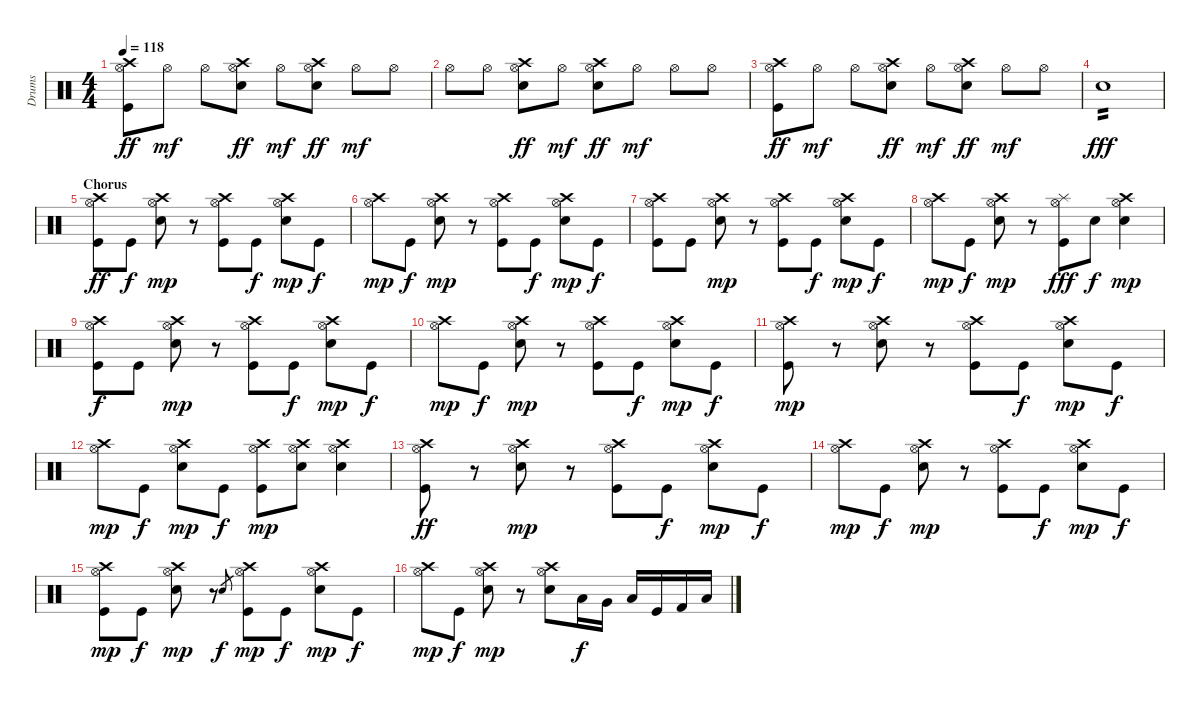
\track ("Drums" "Drums") {instrument percussion}
\staff {score}
\articulation defaults
\ts (4 4)
\tempo 118
\clef neutral
\ks c
("Crash high (hit)" "Hi-Hat (open)" "Kick (hit)").8{dy ff volume 16} "Hi-Hat (open)".8{dy mf} "Hi-Hat (open)".8 ("Crash high (hit)" "Hi-Hat (open)" "Snare (hit) 2").8{dy ff} "Hi-Hat (open)".8{dy mf} ("Crash high (hit)" "Hi-Hat (open)" "Snare (hit) 2").8{dy ff} "Hi-Hat (open)".8{dy mf} "Hi-Hat (open)".8 |
"Hi-Hat (open)".8 "Hi-Hat (open)".8 ("Crash high (hit)" "Hi-Hat (open)" "Snare (hit) 2").8{dy ff} "Hi-Hat (open)".8{dy mf} ("Crash high (hit)" "Hi-Hat (open)" "Snare (hit) 2").8{dy ff} "Hi-Hat (open)".8{dy mf} "Hi-Hat (open)".8 "Hi-Hat (open)".8 |
("Crash high (hit)" "Hi-Hat (open)" "Kick (hit)").8{dy ff} "Hi-Hat (open)".8{dy mf} "Hi-Hat (open)".8 ("Crash high (hit)" "Hi-Hat (open)" "Snare (hit) 2").8{dy ff} "Hi-Hat (open)".8{dy mf} ("Crash high (hit)" "Hi-Hat (open)" "Snare (hit) 2").8{dy ff} "Hi-Hat (open)".8{dy mf} "Hi-Hat (open)".8 |
"Snare (hit) 2".1{tp 2 dy fff} |
\section ("" "Chorus")
("Crash high (hit)" "Hi-Hat (open)" "Kick (hit)").8{dy ff} "Kick (hit)".8{dy f} ("Crash high (hit)" "Hi-Hat (open)" "Snare (hit) 2").8{dy mp} r.8 ("Crash high (hit)" "Hi-Hat (open)" "Kick (hit)").8 "Kick (hit)".8{dy f} ("Crash high (hit)" "Hi-Hat (open)" "Snare (hit) 2").8{dy mp} "Kick (hit)".8{dy f} |
("Crash high (hit)" "Hi-Hat (open)").8{dy mp} "Kick (hit)".8{dy f} ("Crash high (hit)" "Hi-Hat (open)" "Snare (hit) 2").8{dy mp} r.8 ("Crash high (hit)" "Hi-Hat (open)" "Kick (hit)").8 "Kick (hit)".8{dy f} ("Crash high (hit)" "Hi-Hat (open)" "Snare (hit) 2").8{dy mp} "Kick (hit)".8{dy f} |
("Crash high (hit)" "Hi-Hat (open)" "Kick (hit)").8 "Kick (hit)".8 ("Crash high (hit)" "Hi-Hat (open)" "Snare (hit) 2").8{dy mp} r.8 ("Crash high (hit)" "Hi-Hat (open)" "Kick (hit)").8 "Kick (hit)".8{dy f} ("Crash high (hit)" "Hi-Hat (open)" "Snare (hit) 2").8{dy mp} "Kick (hit)".8{dy f} |
("Crash high (hit)" "Hi-Hat (open)").8{dy mp} "Kick (hit)".8{dy f} ("Crash high (hit)" "Hi-Hat (open)" "Snare (hit) 2").8{dy mp} r.8 ("Splash (hit)" "Hi-Hat (open)" "Kick (hit)").8{dy fff} "Snare (hit) 2".8{dy f} ("Crash high (hit)" "Hi-Hat (open)" "Snare (hit) 2").4{dy mp} |
("Crash high (hit)" "Hi-Hat (open)" "Kick (hit)").8{dy f} "Kick (hit)".8 ("Crash high (hit)" "Hi-Hat (open)" "Snare (hit) 2").8{dy mp} r.8 ("Crash high (hit)" "Hi-Hat (open)" "Kick (hit)").8 "Kick (hit)".8{dy f} ("Crash high (hit)" "Hi-Hat (open)" "Snare (hit) 2").8{dy mp} "Kick (hit)".8{dy f} |
("Crash high (hit)" "Hi-Hat (open)").8{dy mp} "Kick (hit)".8{dy f} ("Crash high (hit)" "Hi-Hat (open)" "Snare (hit) 2").8{dy mp} r.8 ("Crash high (hit)" "Hi-Hat (open)" "Kick (hit)").8 "Kick (hit)".8{dy f} ("Crash high (hit)" "Hi-Hat (open)" "Snare (hit) 2").8{dy mp} "Kick (hit)".8{dy f} |
("Crash high (hit)" "Hi-Hat (open)" "Kick (hit)").8{dy mp} r.8 ("Crash high (hit)" "Hi-Hat (open)" "Snare (hit) 2").8 r.8 ("Crash high (hit)" "Hi-Hat (open)" "Kick (hit)").8 "Kick (hit)".8{dy f} ("Crash high (hit)" "Hi-Hat (open)" "Snare (hit) 2").8{dy mp} "Kick (hit)".8{dy f} |
("Crash high (hit)" "Hi-Hat (open)").8{dy mp} "Kick (hit)".8{dy f} ("Crash high (hit)" "Hi-Hat (open)" "Snare (hit) 2").8{dy mp} "Kick (hit)".8{dy f} ("Crash high (hit)" "Hi-Hat (open)" "Kick (hit)").8{dy mp} ("Crash high (hit)" "Hi-Hat (open)" "Snare (hit) 2").8 ("Crash high (hit)" "Hi-Hat (open)" "Snare (hit) 2").4 |
("Crash high (hit)" "Hi-Hat (open)" "Kick (hit)").8{dy ff} r.8 ("Crash high (hit)" "Hi-Hat (open)" "Snare (hit) 2").8{dy mp} r.8 ("Crash high (hit)" "Hi-Hat (open)" "Kick (hit)").8 "Kick (hit)".8{dy f} ("Crash high (hit)" "Hi-Hat (open)" "Snare (hit) 2").8{dy mp} "Kick (hit)".8{dy f} |
("Crash high (hit)" "Hi-Hat (open)").8{dy mp} "Kick (hit)".8{dy f} ("Crash high (hit)" "Hi-Hat (open)" "Snare (hit) 2").8{dy mp} r.8 ("Crash high (hit)" "Hi-Hat (open)" "Kick (hit)").8 "Kick (hit)".8{dy f} ("Crash high (hit)" "Hi-Hat (open)" "Snare (hit) 2").8{dy mp} "Kick (hit)".8{dy f} |
("Crash high (hit)" "Hi-Hat (open)" "Kick (hit)").8{dy mp} "Kick (hit)".8{dy f} ("Crash high (hit)" "Hi-Hat (open)" "Snare (hit) 2").8{dy mp} r.8 "Snare (hit) 2".8{gr dy f} ("Crash high (hit)" "Hi-Hat (open)" "Kick (hit)").8{dy mp} "Kick (hit)".8{dy f} ("Crash high (hit)" "Hi-Hat (open)" "Snare (hit) 2").8{dy mp} "Kick (hit)".8{dy f} |
("Crash high (hit)" "Hi-Hat (open)").8{dy mp} "Kick (hit)".8{dy f} ("Crash high (hit)" "Hi-Hat (open)" "Snare (hit) 2").8{dy mp} r.8 ("Crash high (hit)" "Hi-Hat (open)" "Snare (hit) 2").8 "Low Tom (hit)".16{dy f} "Very Low Tom (hit)".16 "Low Floor Tom (hit)".16 "Kick (hit)".16 "Kick (hit) 2".16 "Low Floor Tom (hit)".16
